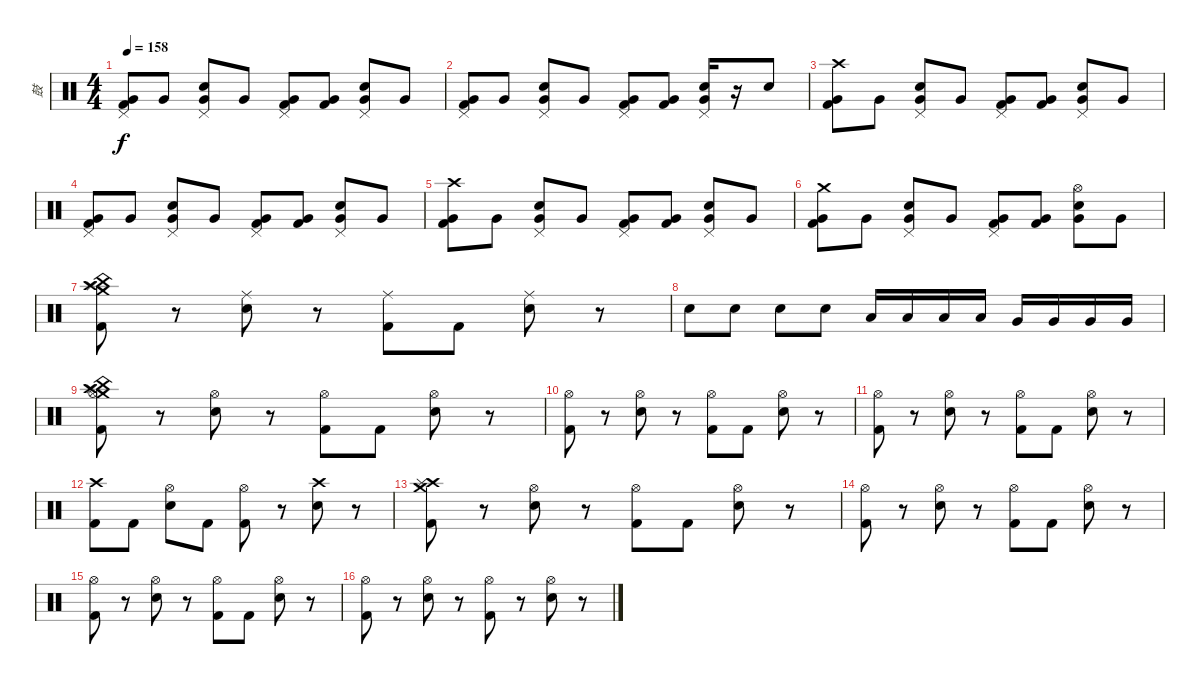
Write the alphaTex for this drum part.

\track ("鼓" "鼓") {instrument percussion}
\staff {score}
\articulation defaults
\ts (4 4)
\tempo 158
\clef neutral
\ks c
("Pedal Hi-Hat (hit)" "Kick (hit) 2" "Very Low Tom (hit)").8{dy f} "Very Low Tom (hit)".8 ("Pedal Hi-Hat (hit)" "Electric Snare (hit)" "Very Low Tom (hit)").8 "Very Low Tom (hit)".8 ("Pedal Hi-Hat (hit)" "Kick (hit) 2" "Very Low Tom (hit)").8 ("Kick (hit) 2" "Very Low Tom (hit)").8 ("Pedal Hi-Hat (hit)" "Electric Snare (hit)" "Very Low Tom (hit)").8 "Very Low Tom (hit)".8 |
("Pedal Hi-Hat (hit)" "Kick (hit) 2" "Very Low Tom (hit)").8 "Very Low Tom (hit)".8 ("Pedal Hi-Hat (hit)" "Electric Snare (hit)" "Very Low Tom (hit)").8 "Very Low Tom (hit)".8 ("Pedal Hi-Hat (hit)" "Kick (hit) 2" "Very Low Tom (hit)").8 ("Kick (hit) 2" "Very Low Tom (hit)").8 ("Pedal Hi-Hat (hit)" "Electric Snare (hit)" "Very Low Tom (hit)").16 r.16 "Electric Snare (hit)".8 |
("Crash high (hit)" "Kick (hit) 2" "Very Low Tom (hit)").8 "Very Low Tom (hit)".8 ("Pedal Hi-Hat (hit)" "Electric Snare (hit)" "Very Low Tom (hit)").8 "Very Low Tom (hit)".8 ("Pedal Hi-Hat (hit)" "Kick (hit) 2" "Very Low Tom (hit)").8 ("Kick (hit) 2" "Very Low Tom (hit)").8 ("Pedal Hi-Hat (hit)" "Electric Snare (hit)" "Very Low Tom (hit)").8 "Very Low Tom (hit)".8 |
("Pedal Hi-Hat (hit)" "Kick (hit) 2" "Very Low Tom (hit)").8 "Very Low Tom (hit)".8 ("Pedal Hi-Hat (hit)" "Electric Snare (hit)" "Very Low Tom (hit)").8 "Very Low Tom (hit)".8 ("Pedal Hi-Hat (hit)" "Kick (hit) 2" "Very Low Tom (hit)").8 ("Kick (hit) 2" "Very Low Tom (hit)").8 ("Pedal Hi-Hat (hit)" "Electric Snare (hit)" "Very Low Tom (hit)").8 "Very Low Tom (hit)".8 |
("Crash high (hit)" "Kick (hit) 2" "Very Low Tom (hit)").8 "Very Low Tom (hit)".8 ("Pedal Hi-Hat (hit)" "Electric Snare (hit)" "Very Low Tom (hit)").8 "Very Low Tom (hit)".8 ("Pedal Hi-Hat (hit)" "Kick (hit) 2" "Very Low Tom (hit)").8 ("Kick (hit) 2" "Very Low Tom (hit)").8 ("Pedal Hi-Hat (hit)" "Electric Snare (hit)" "Very Low Tom (hit)").8 "Very Low Tom (hit)".8 |
("Crash medium (hit)" "Kick (hit) 2" "Very Low Tom (hit)").8 "Very Low Tom (hit)".8 ("Pedal Hi-Hat (hit)" "Electric Snare (hit)" "Very Low Tom (hit)").8 "Very Low Tom (hit)".8 ("Pedal Hi-Hat (hit)" "Kick (hit) 2" "Very Low Tom (hit)").8 ("Kick (hit) 2" "Very Low Tom (hit)").8 ("Hi-Hat (open)" "Electric Snare (hit)" "Very Low Tom (hit)").8 "Very Low Tom (hit)".8 |
("Crash high (hit)" "Crash medium (hit)" "Splash (hit)" "China (hit)" "Kick (hit) 2").8 r.8 ("Ride (middle)" "Electric Snare (hit)").8 r.8 ("Ride (middle)" "Kick (hit) 2").8 "Kick (hit) 2".8 ("Ride (middle)" "Electric Snare (hit)").8 r.8 |
"Electric Snare (hit)".8 "Electric Snare (hit)".8 "Electric Snare (hit)".8 "Electric Snare (hit)".8 "Low Tom (hit)".16 "Low Tom (hit)".16 "Low Tom (hit)".16 "Low Tom (hit)".16 "Very Low Tom (hit)".16 "Very Low Tom (hit)".16 "Very Low Tom (hit)".16 "Very Low Tom (hit)".16 |
("Crash high (hit)" "Crash medium (hit)" "China (hit)" "Splash (hit)" "Hi-Hat (open)" "Kick (hit) 2").8 r.8 ("Hi-Hat (open)" "Electric Snare (hit)").8 r.8 ("Hi-Hat (open)" "Kick (hit) 2").8 "Kick (hit) 2".8 ("Hi-Hat (open)" "Electric Snare (hit)").8 r.8 |
("Hi-Hat (open)" "Kick (hit) 2").8 r.8 ("Hi-Hat (open)" "Electric Snare (hit)").8 r.8 ("Hi-Hat (open)" "Kick (hit) 2").8 "Kick (hit) 2".8 ("Hi-Hat (open)" "Electric Snare (hit)").8 r.8 |
("Hi-Hat (open)" "Kick (hit) 2").8 r.8 ("Hi-Hat (open)" "Electric Snare (hit)").8 r.8 ("Hi-Hat (open)" "Kick (hit) 2").8 "Kick (hit) 2".8 ("Hi-Hat (open)" "Electric Snare (hit)").8 r.8 |
("Crash high (hit)" "Kick (hit) 2").8 "Kick (hit) 2".8 ("Hi-Hat (open)" "Electric Snare (hit)").8 "Kick (hit) 2".8 ("Hi-Hat (open)" "Kick (hit) 2").8 r.8 ("Crash high (hit)" "Electric Snare (hit)").8 r.8 |
("Crash medium (hit)" "Crash high (hit)" "Splash (hit)" "Kick (hit) 2").8 r.8 ("Hi-Hat (open)" "Electric Snare (hit)").8 r.8 ("Hi-Hat (open)" "Kick (hit) 2").8 "Kick (hit) 2".8 ("Hi-Hat (open)" "Electric Snare (hit)").8 r.8 |
("Hi-Hat (open)" "Kick (hit) 2").8 r.8 ("Hi-Hat (open)" "Electric Snare (hit)").8 r.8 ("Hi-Hat (open)" "Kick (hit) 2").8 "Kick (hit) 2".8 ("Hi-Hat (open)" "Electric Snare (hit)").8 r.8 |
("Hi-Hat (open)" "Kick (hit) 2").8 r.8 ("Hi-Hat (open)" "Electric Snare (hit)").8 r.8 ("Hi-Hat (open)" "Kick (hit) 2").8 "Kick (hit) 2".8 ("Hi-Hat (open)" "Electric Snare (hit)").8 r.8 |
("Hi-Hat (open)" "Kick (hit) 2").8 r.8 ("Hi-Hat (open)" "Electric Snare (hit)").8 r.8 ("Hi-Hat (open)" "Kick (hit) 2").8 r.8 ("Hi-Hat (open)" "Electric Snare (hit)").8 r.8
